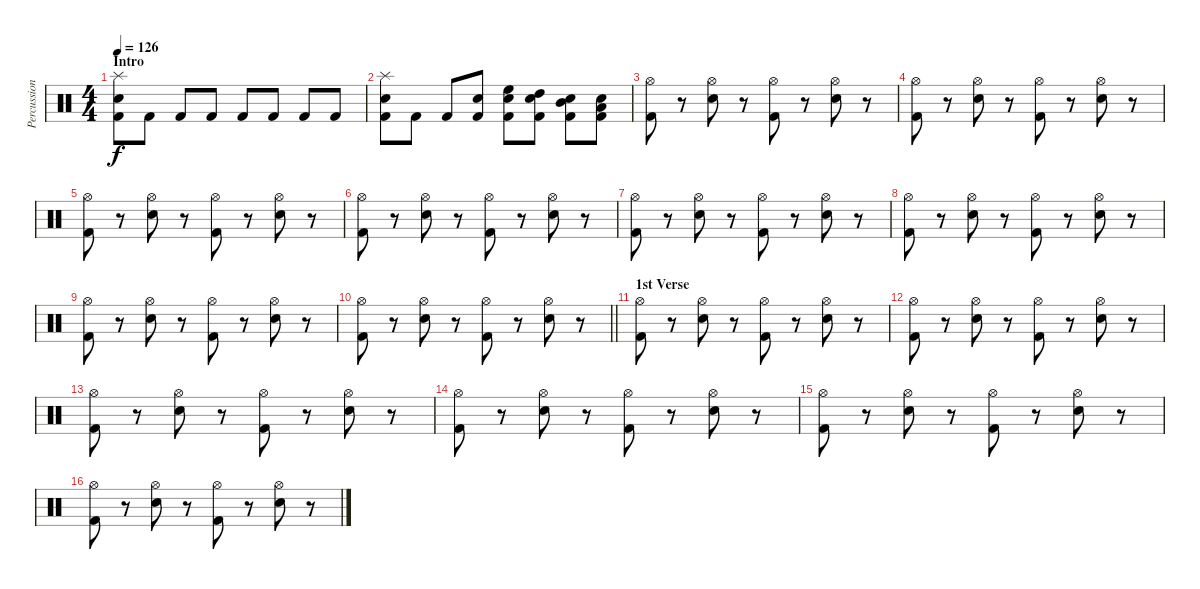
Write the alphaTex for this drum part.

\track ("Percussion" "Percussion") {instrument percussion}
\staff {score}
\articulation defaults
\ts (4 4)
\section ("" "Intro")
\tempo 126
\clef neutral
\ks c
("Splash (hit)" "Snare (hit) 2" "Kick (hit) 2").8{dy f} "Kick (hit) 2".8 "Kick (hit) 2".8 "Kick (hit) 2".8 "Kick (hit) 2".8 "Kick (hit) 2".8 "Kick (hit) 2".8 "Kick (hit) 2".8 |
("Splash (hit)" "Snare (hit) 2" "Kick (hit) 2").8 "Kick (hit) 2".8 "Kick (hit) 2".8 ("Snare (hit) 2" "Kick (hit) 2").8 ("High Floor Tom (hit)" "Snare (hit) 2" "Kick (hit) 2").8 ("High Tom (hit)" "Snare (hit) 2" "Kick (hit) 2").8 ("Mid Tom (hit)" "Snare (hit) 2" "Kick (hit) 2").8 ("Low Tom (hit)" "Snare (hit) 2" "Kick (hit) 2").8 |
("Hi-Hat (open)" "Kick (hit) 2").8 r.8 ("Hi-Hat (open)" "Snare (hit) 2").8 r.8 ("Hi-Hat (open)" "Kick (hit) 2").8 r.8 ("Hi-Hat (open)" "Snare (hit) 2").8 r.8 |
("Hi-Hat (open)" "Kick (hit) 2").8 r.8 ("Hi-Hat (open)" "Snare (hit) 2").8 r.8 ("Hi-Hat (open)" "Kick (hit) 2").8 r.8 ("Hi-Hat (open)" "Snare (hit) 2").8 r.8 |
("Hi-Hat (open)" "Kick (hit) 2").8 r.8 ("Hi-Hat (open)" "Snare (hit) 2").8 r.8 ("Hi-Hat (open)" "Kick (hit) 2").8 r.8 ("Hi-Hat (open)" "Snare (hit) 2").8 r.8 |
("Hi-Hat (open)" "Kick (hit) 2").8 r.8 ("Hi-Hat (open)" "Snare (hit) 2").8 r.8 ("Hi-Hat (open)" "Kick (hit) 2").8 r.8 ("Hi-Hat (open)" "Snare (hit) 2").8 r.8 |
("Hi-Hat (open)" "Kick (hit) 2").8 r.8 ("Hi-Hat (open)" "Snare (hit) 2").8 r.8 ("Hi-Hat (open)" "Kick (hit) 2").8 r.8 ("Hi-Hat (open)" "Snare (hit) 2").8 r.8 |
("Hi-Hat (open)" "Kick (hit) 2").8 r.8 ("Hi-Hat (open)" "Snare (hit) 2").8 r.8 ("Hi-Hat (open)" "Kick (hit) 2").8 r.8 ("Hi-Hat (open)" "Snare (hit) 2").8 r.8 |
("Hi-Hat (open)" "Kick (hit) 2").8 r.8 ("Hi-Hat (open)" "Snare (hit) 2").8 r.8 ("Hi-Hat (open)" "Kick (hit) 2").8 r.8 ("Hi-Hat (open)" "Snare (hit) 2").8 r.8 |
\barLineRight lightlight
("Hi-Hat (open)" "Kick (hit) 2").8 r.8 ("Hi-Hat (open)" "Snare (hit) 2").8 r.8 ("Hi-Hat (open)" "Kick (hit) 2").8 r.8 ("Hi-Hat (open)" "Snare (hit) 2").8 r.8 |
\section ("" "1st Verse")
("Hi-Hat (open)" "Kick (hit) 2").8 r.8 ("Hi-Hat (open)" "Snare (hit) 2").8 r.8 ("Hi-Hat (open)" "Kick (hit) 2").8 r.8 ("Hi-Hat (open)" "Snare (hit) 2").8 r.8 |
("Hi-Hat (open)" "Kick (hit) 2").8 r.8 ("Hi-Hat (open)" "Snare (hit) 2").8 r.8 ("Hi-Hat (open)" "Kick (hit) 2").8 r.8 ("Hi-Hat (open)" "Snare (hit) 2").8 r.8 |
("Hi-Hat (open)" "Kick (hit) 2").8 r.8 ("Hi-Hat (open)" "Snare (hit) 2").8 r.8 ("Hi-Hat (open)" "Kick (hit) 2").8 r.8 ("Hi-Hat (open)" "Snare (hit) 2").8 r.8 |
("Hi-Hat (open)" "Kick (hit) 2").8 r.8 ("Hi-Hat (open)" "Snare (hit) 2").8 r.8 ("Hi-Hat (open)" "Kick (hit) 2").8 r.8 ("Hi-Hat (open)" "Snare (hit) 2").8 r.8 |
("Hi-Hat (open)" "Kick (hit) 2").8 r.8 ("Hi-Hat (open)" "Snare (hit) 2").8 r.8 ("Hi-Hat (open)" "Kick (hit) 2").8 r.8 ("Hi-Hat (open)" "Snare (hit) 2").8 r.8 |
("Hi-Hat (open)" "Kick (hit) 2").8 r.8 ("Hi-Hat (open)" "Snare (hit) 2").8 r.8 ("Hi-Hat (open)" "Kick (hit) 2").8 r.8 ("Hi-Hat (open)" "Snare (hit) 2").8 r.8
